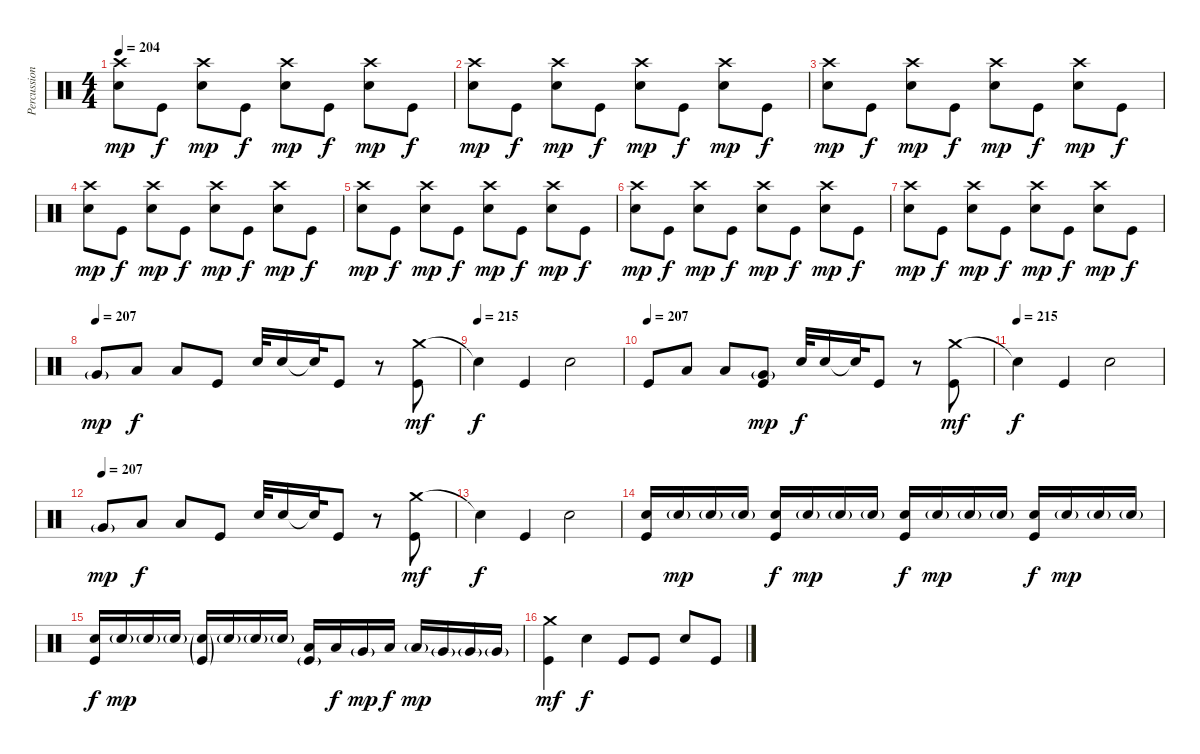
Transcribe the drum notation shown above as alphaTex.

\track ("Percussion" "Percussion") {instrument percussion}
\staff {score}
\articulation defaults
\ts (4 4)
\tempo 204
\clef neutral
\ks c
("Crash high (hit)" "Electric Snare (hit)").8{dy mp} "Kick (hit)".8{dy f} ("Crash high (hit)" "Electric Snare (hit)").8{dy mp} "Kick (hit)".8{dy f} ("Crash high (hit)" "Electric Snare (hit)").8{dy mp} "Kick (hit)".8{dy f} ("Crash high (hit)" "Electric Snare (hit)").8{dy mp} "Kick (hit)".8{dy f} |
("Crash high (hit)" "Electric Snare (hit)").8{dy mp} "Kick (hit)".8{dy f} ("Crash high (hit)" "Electric Snare (hit)").8{dy mp} "Kick (hit)".8{dy f} ("Crash high (hit)" "Electric Snare (hit)").8{dy mp} "Kick (hit)".8{dy f} ("Crash high (hit)" "Electric Snare (hit)").8{dy mp} "Kick (hit)".8{dy f} |
("Crash high (hit)" "Electric Snare (hit)").8{dy mp} "Kick (hit)".8{dy f} ("Crash high (hit)" "Electric Snare (hit)").8{dy mp} "Kick (hit)".8{dy f} ("Crash high (hit)" "Electric Snare (hit)").8{dy mp} "Kick (hit)".8{dy f} ("Crash high (hit)" "Electric Snare (hit)").8{dy mp} "Kick (hit)".8{dy f} |
("Crash high (hit)" "Electric Snare (hit)").8{dy mp} "Kick (hit)".8{dy f} ("Crash high (hit)" "Electric Snare (hit)").8{dy mp} "Kick (hit)".8{dy f} ("Crash high (hit)" "Electric Snare (hit)").8{dy mp} "Kick (hit)".8{dy f} ("Crash high (hit)" "Electric Snare (hit)").8{dy mp} "Kick (hit)".8{dy f} |
("Crash high (hit)" "Electric Snare (hit)").8{dy mp} "Kick (hit)".8{dy f} ("Crash high (hit)" "Electric Snare (hit)").8{dy mp} "Kick (hit)".8{dy f} ("Crash high (hit)" "Electric Snare (hit)").8{dy mp} "Kick (hit)".8{dy f} ("Crash high (hit)" "Electric Snare (hit)").8{dy mp} "Kick (hit)".8{dy f} |
("Crash high (hit)" "Electric Snare (hit)").8{dy mp} "Kick (hit)".8{dy f} ("Crash high (hit)" "Electric Snare (hit)").8{dy mp} "Kick (hit)".8{dy f} ("Crash high (hit)" "Electric Snare (hit)").8{dy mp} "Kick (hit)".8{dy f} ("Crash high (hit)" "Electric Snare (hit)").8{dy mp} "Kick (hit)".8{dy f} |
("Crash high (hit)" "Electric Snare (hit)").8{dy mp} "Kick (hit)".8{dy f} ("Crash high (hit)" "Electric Snare (hit)").8{dy mp} "Kick (hit)".8{dy f} ("Crash high (hit)" "Electric Snare (hit)").8{dy mp} "Kick (hit)".8{dy f} ("Crash high (hit)" "Electric Snare (hit)").8{dy mp} "Kick (hit)".8{dy f} |
\tempo (207)
"Very Low Tom (hit)"{g}.8{dy mp} "Low Tom (hit)".8{dy f} "Low Tom (hit)".8 "Kick (hit)".8 "Electric Snare (hit)".32 "Electric Snare (hit)".16 "Snare (hit)"{t}.32 "Kick (hit)".8 r.8 ("Crash medium (hit)" "Kick (hit)").8{dy mf} |
\tempo (215)
"Snare (hit)"{t}.4{dy f} "Kick (hit)".4 "Electric Snare (hit)".2 |
\tempo (207)
"Kick (hit)".8 "Low Tom (hit)".8 "Low Tom (hit)".8 ("Very Low Tom (hit)"{g} "Kick (hit)").8{dy mp} "Electric Snare (hit)".32{dy f} "Electric Snare (hit)".16 "Snare (hit)"{t}.32 "Kick (hit)".8 r.8 ("Crash medium (hit)" "Kick (hit)").8{dy mf} |
\tempo (215)
"Snare (hit)"{t}.4{dy f} "Kick (hit)".4 "Electric Snare (hit)".2 |
\tempo (207)
"Very Low Tom (hit)"{g}.8{dy mp} "Low Tom (hit)".8{dy f} "Low Tom (hit)".8 "Kick (hit)".8 "Electric Snare (hit)".32 "Electric Snare (hit)".16 "Snare (hit)"{t}.32 "Kick (hit)".8 r.8 ("Crash medium (hit)" "Kick (hit)").8{dy mf} |
"Snare (hit)"{t}.4{dy f} "Kick (hit)".4 "Electric Snare (hit)".2 |
("Electric Snare (hit)" "Kick (hit)").16 "Electric Snare (hit)"{g}.16{dy mp} "Electric Snare (hit)"{g}.16 "Electric Snare (hit)"{g}.16 ("Electric Snare (hit)" "Kick (hit)").16{dy f} "Electric Snare (hit)"{g}.16{dy mp} "Electric Snare (hit)"{g}.16 "Electric Snare (hit)"{g}.16 ("Electric Snare (hit)" "Kick (hit)").16{dy f} "Electric Snare (hit)"{g}.16{dy mp} "Electric Snare (hit)"{g}.16 "Electric Snare (hit)"{g}.16 ("Electric Snare (hit)" "Kick (hit)").16{dy f} "Electric Snare (hit)"{g}.16{dy mp} "Electric Snare (hit)"{g}.16 "Electric Snare (hit)"{g}.16 |
("Electric Snare (hit)" "Kick (hit)").16{dy f} "Electric Snare (hit)"{g}.16{dy mp} "Electric Snare (hit)"{g}.16 "Electric Snare (hit)"{g}.16 ("Electric Snare (hit)"{g} "Kick (hit)"{g}).16 "Electric Snare (hit)"{g}.16 "Electric Snare (hit)"{g}.16 "Electric Snare (hit)"{g}.16 ("Low Tom (hit)" "Kick (hit)"{g}).16 "Low Tom (hit)".16{dy f} "Very Low Tom (hit)"{g}.16{dy mp} "Low Tom (hit)".16{dy f} "Low Tom (hit)"{g}.16{dy mp} "Very Low Tom (hit)"{g}.16 "Very Low Tom (hit)"{g}.16 "Very Low Tom (hit)"{g}.16 |
("Crash medium (hit)" "Kick (hit)").4{dy mf} "Electric Snare (hit)".4{dy f} "Kick (hit)".8 "Kick (hit)".8 "Electric Snare (hit)".8 "Kick (hit)".8
